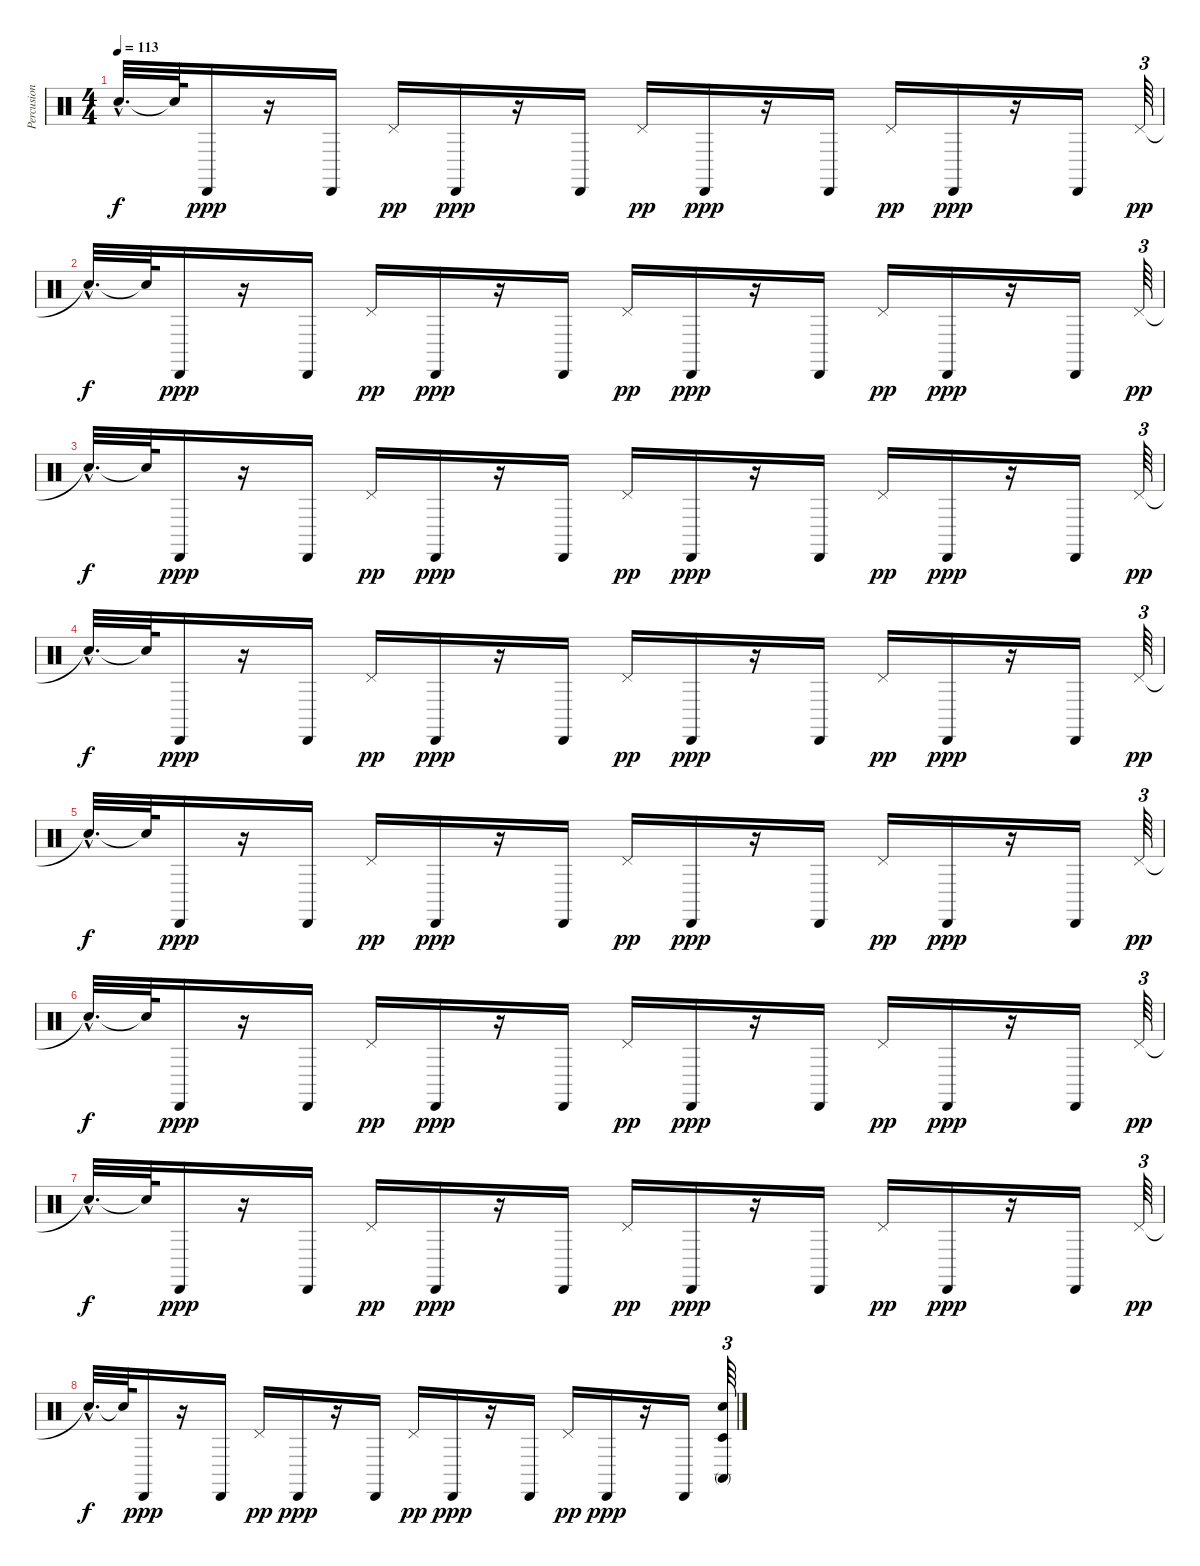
\track ("Percusion" "Percusion") {instrument percussion}
\staff {score}
\articulation defaults
\ts (4 4)
\tempo 113
\clef neutral
\ks c "Snare (hit)"{hac t}.32{d dy f} "Snare (hit)"{t}.64 "Cabasa (hit)".16{dy ppp}
r.16 "Cabasa (hit)".16 "Pedal Hi-Hat (hit)".16{dy pp} "Cabasa (hit)".16{dy ppp} r.16 "Cabasa (hit)".16 "Pedal Hi-Hat (hit)".16{dy pp} "Cabasa (hit)".16{dy ppp} r.16 "Cabasa (hit)".16 "Pedal Hi-Hat (hit)".16{dy pp} "Cabasa (hit)".16{dy ppp} r.16 "Cabasa (hit)".16 "Pedal Hi-Hat (hit)".64{tu (3 2) dy pp} |
"Snare (hit)"{hac t}.32{d dy f} "Snare (hit)"{t}.64 "Cabasa (hit)".16{dy ppp} r.16 "Cabasa (hit)".16 "Pedal Hi-Hat (hit)".16{dy pp} "Cabasa (hit)".16{dy ppp} r.16 "Cabasa (hit)".16 "Pedal Hi-Hat (hit)".16{dy pp} "Cabasa (hit)".16{dy ppp} r.16 "Cabasa (hit)".16 "Pedal Hi-Hat (hit)".16{dy pp} "Cabasa (hit)".16{dy ppp} r.16 "Cabasa (hit)".16 "Pedal Hi-Hat (hit)".64{tu (3 2) dy pp} |
"Snare (hit)"{hac t}.32{d dy f} "Snare (hit)"{t}.64 "Cabasa (hit)".16{dy ppp} r.16 "Cabasa (hit)".16 "Pedal Hi-Hat (hit)".16{dy pp} "Cabasa (hit)".16{dy ppp} r.16 "Cabasa (hit)".16 "Pedal Hi-Hat (hit)".16{dy pp} "Cabasa (hit)".16{dy ppp} r.16 "Cabasa (hit)".16 "Pedal Hi-Hat (hit)".16{dy pp} "Cabasa (hit)".16{dy ppp} r.16 "Cabasa (hit)".16 "Pedal Hi-Hat (hit)".64{tu (3 2) dy pp} |
"Snare (hit)"{hac t}.32{d dy f} "Snare (hit)"{t}.64 "Cabasa (hit)".16{dy ppp} r.16 "Cabasa (hit)".16 "Pedal Hi-Hat (hit)".16{dy pp} "Cabasa (hit)".16{dy ppp} r.16 "Cabasa (hit)".16 "Pedal Hi-Hat (hit)".16{dy pp} "Cabasa (hit)".16{dy ppp} r.16 "Cabasa (hit)".16 "Pedal Hi-Hat (hit)".16{dy pp} "Cabasa (hit)".16{dy ppp} r.16 "Cabasa (hit)".16 "Pedal Hi-Hat (hit)".64{tu (3 2) dy pp} |
"Snare (hit)"{hac t}.32{d dy f} "Snare (hit)"{t}.64 "Cabasa (hit)".16{dy ppp} r.16 "Cabasa (hit)".16 "Pedal Hi-Hat (hit)".16{dy pp} "Cabasa (hit)".16{dy ppp} r.16 "Cabasa (hit)".16 "Pedal Hi-Hat (hit)".16{dy pp} "Cabasa (hit)".16{dy ppp} r.16 "Cabasa (hit)".16 "Pedal Hi-Hat (hit)".16{dy pp} "Cabasa (hit)".16{dy ppp} r.16 "Cabasa (hit)".16 "Pedal Hi-Hat (hit)".64{tu (3 2) dy pp} |
"Snare (hit)"{hac t}.32{d dy f} "Snare (hit)"{t}.64 "Cabasa (hit)".16{dy ppp} r.16 "Cabasa (hit)".16 "Pedal Hi-Hat (hit)".16{dy pp} "Cabasa (hit)".16{dy ppp} r.16 "Cabasa (hit)".16 "Pedal Hi-Hat (hit)".16{dy pp} "Cabasa (hit)".16{dy ppp} r.16 "Cabasa (hit)".16 "Pedal Hi-Hat (hit)".16{dy pp} "Cabasa (hit)".16{dy ppp} r.16 "Cabasa (hit)".16 "Pedal Hi-Hat (hit)".64{tu (3 2) dy pp} |
"Snare (hit)"{hac t}.32{d dy f} "Snare (hit)"{t}.64 "Cabasa (hit)".16{dy ppp} r.16 "Cabasa (hit)".16 "Pedal Hi-Hat (hit)".16{dy pp} "Cabasa (hit)".16{dy ppp} r.16 "Cabasa (hit)".16 "Pedal Hi-Hat (hit)".16{dy pp} "Cabasa (hit)".16{dy ppp} r.16 "Cabasa (hit)".16 "Pedal Hi-Hat (hit)".16{dy pp} "Cabasa (hit)".16{dy ppp} r.16 "Cabasa (hit)".16 "Pedal Hi-Hat (hit)".64{tu (3 2) dy pp} |
"Snare (hit)"{hac t}.32{d dy f} "Snare (hit)"{t}.64 "Cabasa (hit)".16{dy ppp} r.16 "Cabasa (hit)".16 "Pedal Hi-Hat (hit)".16{dy pp} "Cabasa (hit)".16{dy ppp} r.16 "Cabasa (hit)".16 "Pedal Hi-Hat (hit)".16{dy pp} "Cabasa (hit)".16{dy ppp} r.16 "Cabasa (hit)".16 "Pedal Hi-Hat (hit)".16{dy pp} "Cabasa (hit)".16{dy ppp} r.16 "Cabasa (hit)".16 ("Electric Snare (hit)" "Timbale low (hit)" "Conga high (mute)").64{tu (3 2)}
